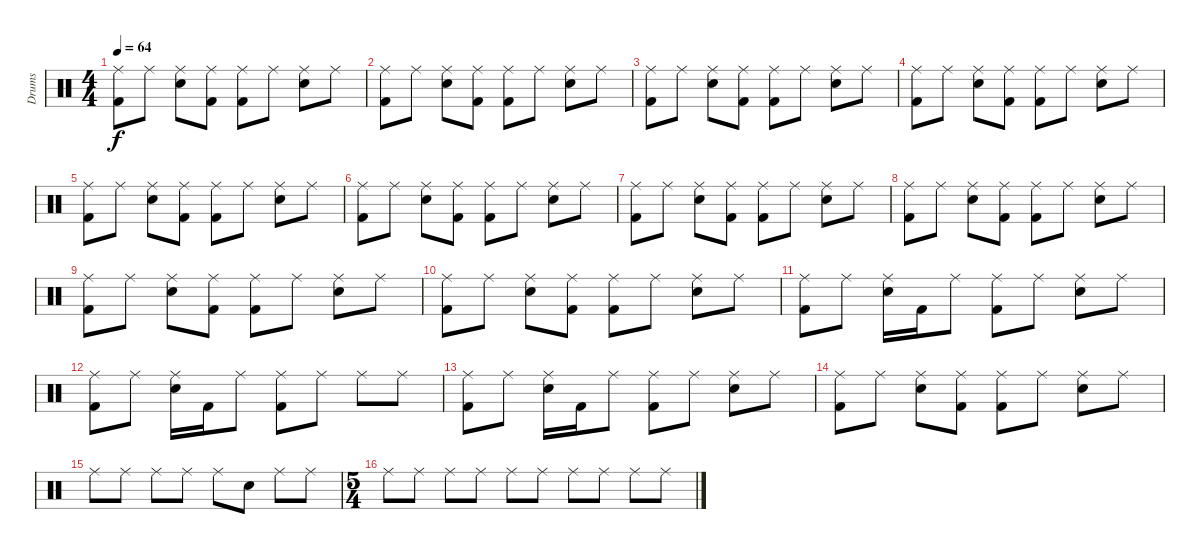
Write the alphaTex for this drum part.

\track ("Drums" "Drums") {instrument percussion}
\staff {score}
\articulation defaults
\ts (4 4)
\tempo 64
\clef neutral
\ks c
("Ride (middle)" "Kick (hit) 2").8{dy f} "Ride (middle)".8 ("Ride (middle)" "Snare (hit) 2").8 ("Ride (middle)" "Kick (hit) 2").8 ("Ride (middle)" "Kick (hit) 2").8 "Ride (middle)".8 ("Ride (middle)" "Snare (hit) 2").8 "Ride (middle)".8 |
("Ride (middle)" "Kick (hit) 2").8 "Ride (middle)".8 ("Ride (middle)" "Snare (hit) 2").8 ("Ride (middle)" "Kick (hit) 2").8 ("Ride (middle)" "Kick (hit) 2").8 "Ride (middle)".8 ("Ride (middle)" "Snare (hit) 2").8 "Ride (middle)".8 |
("Ride (middle)" "Kick (hit) 2").8 "Ride (middle)".8 ("Ride (middle)" "Snare (hit) 2").8 ("Ride (middle)" "Kick (hit) 2").8 ("Ride (middle)" "Kick (hit) 2").8 "Ride (middle)".8 ("Ride (middle)" "Snare (hit) 2").8 "Ride (middle)".8 |
("Ride (middle)" "Kick (hit) 2").8 "Ride (middle)".8 ("Ride (middle)" "Snare (hit) 2").8 ("Ride (middle)" "Kick (hit) 2").8 ("Ride (middle)" "Kick (hit) 2").8 "Ride (middle)".8 ("Ride (middle)" "Snare (hit) 2").8 "Ride (middle)".8 |
("Ride (middle)" "Kick (hit) 2").8 "Ride (middle)".8 ("Ride (middle)" "Snare (hit) 2").8 ("Ride (middle)" "Kick (hit) 2").8 ("Ride (middle)" "Kick (hit) 2").8 "Ride (middle)".8 ("Ride (middle)" "Snare (hit) 2").8 "Ride (middle)".8 |
("Ride (middle)" "Kick (hit) 2").8 "Ride (middle)".8 ("Ride (middle)" "Snare (hit) 2").8 ("Ride (middle)" "Kick (hit) 2").8 ("Ride (middle)" "Kick (hit) 2").8 "Ride (middle)".8 ("Ride (middle)" "Snare (hit) 2").8 "Ride (middle)".8 |
("Ride (middle)" "Kick (hit) 2").8 "Ride (middle)".8 ("Ride (middle)" "Snare (hit) 2").8 ("Ride (middle)" "Kick (hit) 2").8 ("Ride (middle)" "Kick (hit) 2").8 "Ride (middle)".8 ("Ride (middle)" "Snare (hit) 2").8 "Ride (middle)".8 |
("Ride (middle)" "Kick (hit) 2").8 "Ride (middle)".8 ("Ride (middle)" "Snare (hit) 2").8 ("Ride (middle)" "Kick (hit) 2").8 ("Ride (middle)" "Kick (hit) 2").8 "Ride (middle)".8 ("Ride (middle)" "Snare (hit) 2").8 "Ride (middle)".8 |
("Ride (middle)" "Kick (hit) 2").8 "Ride (middle)".8 ("Ride (middle)" "Snare (hit) 2").8 ("Ride (middle)" "Kick (hit) 2").8 ("Ride (middle)" "Kick (hit) 2").8 "Ride (middle)".8 ("Ride (middle)" "Snare (hit) 2").8 "Ride (middle)".8 |
("Ride (middle)" "Kick (hit) 2").8 "Ride (middle)".8 ("Ride (middle)" "Snare (hit) 2").8 ("Ride (middle)" "Kick (hit) 2").8 ("Ride (middle)" "Kick (hit) 2").8 "Ride (middle)".8 ("Ride (middle)" "Snare (hit) 2").8 "Ride (middle)".8 |
("Ride (middle)" "Kick (hit) 2").8 "Ride (middle)".8 ("Ride (middle)" "Snare (hit) 2").16 "Kick (hit) 2".16 "Ride (middle)".8 ("Ride (middle)" "Kick (hit) 2").8 "Ride (middle)".8 ("Ride (middle)" "Snare (hit) 2").8 "Ride (middle)".8 |
("Ride (middle)" "Kick (hit) 2").8 "Ride (middle)".8 ("Ride (middle)" "Snare (hit) 2").16 "Kick (hit) 2".16 "Ride (middle)".8 ("Ride (middle)" "Kick (hit) 2").8 "Ride (middle)".8 "Ride (middle)".8 "Ride (middle)".8 |
("Ride (middle)" "Kick (hit) 2").8 "Ride (middle)".8 ("Ride (middle)" "Snare (hit) 2").16 "Kick (hit) 2".16 "Ride (middle)".8 ("Ride (middle)" "Kick (hit) 2").8 "Ride (middle)".8 ("Ride (middle)" "Snare (hit) 2").8 "Ride (middle)".8 |
("Ride (middle)" "Kick (hit) 2").8 "Ride (middle)".8 ("Ride (middle)" "Snare (hit) 2").8 ("Ride (middle)" "Kick (hit) 2").8 ("Ride (middle)" "Kick (hit) 2").8 "Ride (middle)".8 ("Ride (middle)" "Snare (hit) 2").8 "Ride (middle)".8 |
"Ride (middle)".8 "Ride (middle)".8 "Ride (middle)".8 "Ride (middle)".8 "Ride (middle)".8 "Snare (hit)".8 "Ride (middle)".8 "Ride (middle)".8 |
\ts (5 4)
"Ride (middle)".8 "Ride (middle)".8 "Ride (middle)".8 "Ride (middle)".8 "Ride (middle)".8 "Ride (middle)".8 "Ride (middle)".8 "Ride (middle)".8 "Ride (middle)".8 "Ride (middle)".8
